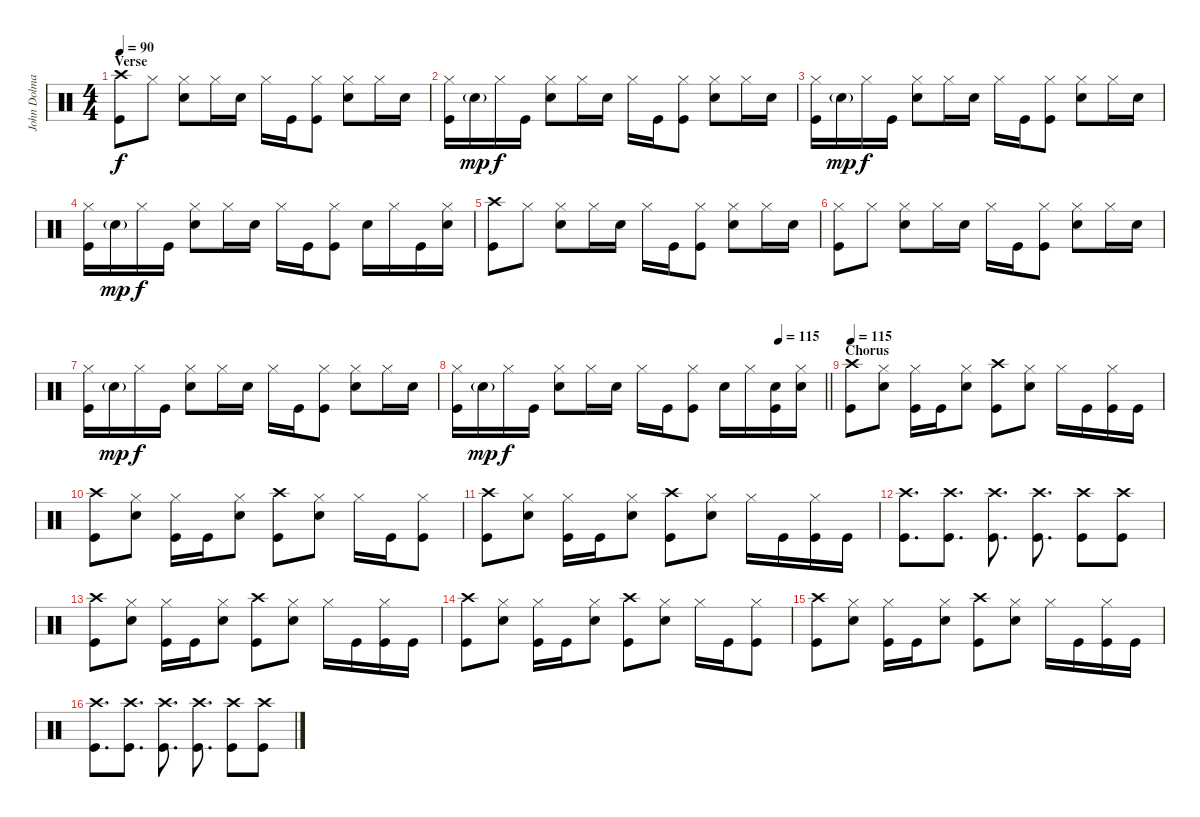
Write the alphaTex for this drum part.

\track ("John Dolmayan" "John Dolma") {instrument percussion}
\staff {score}
\articulation defaults
\ts (4 4)
\section ("" "Verse")
\tempo 90
\clef neutral
\ks c
("Crash high (hit)" "Kick (hit)").8{dy f} "Hi-Hat (closed)".8 ("Hi-Hat (closed)" "Snare (hit) 2").8 "Hi-Hat (closed)".16 "Snare (hit) 2".16 "Hi-Hat (closed)".16 "Kick (hit)".16 ("Hi-Hat (closed)" "Kick (hit)").8 ("Hi-Hat (closed)" "Snare (hit) 2").8 "Hi-Hat (closed)".16 "Snare (hit) 2".16 |
("Hi-Hat (closed)" "Kick (hit)").16 "Snare (hit) 2"{g}.16{dy mp} "Hi-Hat (closed)".16{dy f} "Kick (hit)".16 ("Hi-Hat (closed)" "Snare (hit) 2").8 "Hi-Hat (closed)".16 "Snare (hit) 2".16 "Hi-Hat (closed)".16 "Kick (hit)".16 ("Hi-Hat (closed)" "Kick (hit)").8 ("Hi-Hat (closed)" "Snare (hit) 2").8 "Hi-Hat (closed)".16 "Snare (hit) 2".16 |
("Hi-Hat (closed)" "Kick (hit)").16 "Snare (hit) 2"{g}.16{dy mp} "Hi-Hat (closed)".16{dy f} "Kick (hit)".16 ("Hi-Hat (closed)" "Snare (hit) 2").8 "Hi-Hat (closed)".16 "Snare (hit) 2".16 "Hi-Hat (closed)".16 "Kick (hit)".16 ("Hi-Hat (closed)" "Kick (hit)").8 ("Hi-Hat (closed)" "Snare (hit) 2").8 "Hi-Hat (closed)".16 "Snare (hit) 2".16 |
("Hi-Hat (closed)" "Kick (hit)").16 "Snare (hit) 2"{g}.16{dy mp} "Hi-Hat (closed)".16{dy f} "Kick (hit)".16 ("Hi-Hat (closed)" "Snare (hit) 2").8 "Hi-Hat (closed)".16 "Snare (hit) 2".16 "Hi-Hat (closed)".16 "Kick (hit)".16 ("Hi-Hat (closed)" "Kick (hit)").8 "Snare (hit) 2".16 "Hi-Hat (closed)".16 "Kick (hit)".16 ("Hi-Hat (closed)" "Snare (hit) 2").16 |
("Crash high (hit)" "Kick (hit)").8 "Hi-Hat (closed)".8 ("Hi-Hat (closed)" "Snare (hit) 2").8 "Hi-Hat (closed)".16 "Snare (hit) 2".16 "Hi-Hat (closed)".16 "Kick (hit)".16 ("Hi-Hat (closed)" "Kick (hit)").8 ("Hi-Hat (closed)" "Snare (hit) 2").8 "Hi-Hat (closed)".16 "Snare (hit) 2".16 |
("Hi-Hat (closed)" "Kick (hit)").8 "Hi-Hat (closed)".8 ("Hi-Hat (closed)" "Snare (hit) 2").8 "Hi-Hat (closed)".16 "Snare (hit) 2".16 "Hi-Hat (closed)".16 "Kick (hit)".16 ("Hi-Hat (closed)" "Kick (hit)").8 ("Hi-Hat (closed)" "Snare (hit) 2").8 "Hi-Hat (closed)".16 "Snare (hit) 2".16 |
("Hi-Hat (closed)" "Kick (hit)").16 "Snare (hit) 2"{g}.16{dy mp} "Hi-Hat (closed)".16{dy f} "Kick (hit)".16 ("Hi-Hat (closed)" "Snare (hit) 2").8 "Hi-Hat (closed)".16 "Snare (hit) 2".16 "Hi-Hat (closed)".16 "Kick (hit)".16 ("Hi-Hat (closed)" "Kick (hit)").8 ("Hi-Hat (closed)" "Snare (hit) 2").8 "Hi-Hat (closed)".16 "Snare (hit) 2".16 |
\tempo (115 0.875)
\barLineRight lightlight
("Hi-Hat (closed)" "Kick (hit)").16 "Snare (hit) 2"{g}.16{dy mp} "Hi-Hat (closed)".16{dy f} "Kick (hit)".16 ("Hi-Hat (closed)" "Snare (hit) 2").8 "Hi-Hat (closed)".16 "Snare (hit) 2".16 "Hi-Hat (closed)".16 "Kick (hit)".16 ("Hi-Hat (closed)" "Kick (hit)").8 "Snare (hit) 2".16 "Hi-Hat (closed)".16 ("Snare (hit) 2" "Kick (hit)").16 ("Hi-Hat (closed)" "Snare (hit) 2").16 |
\section ("" "Chorus")
\tempo 115
("Crash high (hit)" "Kick (hit)").8 ("Hi-Hat (closed)" "Snare (hit) 2").8 ("Hi-Hat (closed)" "Kick (hit)").16 "Kick (hit)".16 ("Hi-Hat (closed)" "Snare (hit) 2").8 ("Crash high (hit)" "Kick (hit)").8 ("Hi-Hat (closed)" "Snare (hit) 2").8 "Hi-Hat (closed)".16 "Kick (hit)".16 ("Hi-Hat (closed)" "Kick (hit)").16 "Kick (hit)".16 |
("Crash high (hit)" "Kick (hit)").8 ("Hi-Hat (closed)" "Snare (hit) 2").8 ("Hi-Hat (closed)" "Kick (hit)").16 "Kick (hit)".16 ("Hi-Hat (closed)" "Snare (hit) 2").8 ("Crash high (hit)" "Kick (hit)").8 ("Hi-Hat (closed)" "Snare (hit) 2").8 "Hi-Hat (closed)".16 "Kick (hit)".16 ("Hi-Hat (closed)" "Kick (hit)").8 |
("Crash high (hit)" "Kick (hit)").8 ("Hi-Hat (closed)" "Snare (hit) 2").8 ("Hi-Hat (closed)" "Kick (hit)").16 "Kick (hit)".16 ("Hi-Hat (closed)" "Snare (hit) 2").8 ("Crash high (hit)" "Kick (hit)").8 ("Hi-Hat (closed)" "Snare (hit) 2").8 "Hi-Hat (closed)".16 "Kick (hit)".16 ("Hi-Hat (closed)" "Kick (hit)").16 "Kick (hit)".16 |
("Crash high (hit)" "Kick (hit)").8{d} ("Crash high (hit)" "Kick (hit)").8{d} ("Crash high (hit)" "Kick (hit)").8{d} ("Crash high (hit)" "Kick (hit)").8{d} ("Crash high (hit)" "Kick (hit)").8 ("Crash high (hit)" "Kick (hit)").8 |
("Crash high (hit)" "Kick (hit)").8 ("Hi-Hat (closed)" "Snare (hit) 2").8 ("Hi-Hat (closed)" "Kick (hit)").16 "Kick (hit)".16 ("Hi-Hat (closed)" "Snare (hit) 2").8 ("Crash high (hit)" "Kick (hit)").8 ("Hi-Hat (closed)" "Snare (hit) 2").8 "Hi-Hat (closed)".16 "Kick (hit)".16 ("Hi-Hat (closed)" "Kick (hit)").16 "Kick (hit)".16 |
("Crash high (hit)" "Kick (hit)").8 ("Hi-Hat (closed)" "Snare (hit) 2").8 ("Hi-Hat (closed)" "Kick (hit)").16 "Kick (hit)".16 ("Hi-Hat (closed)" "Snare (hit) 2").8 ("Crash high (hit)" "Kick (hit)").8 ("Hi-Hat (closed)" "Snare (hit) 2").8 "Hi-Hat (closed)".16 "Kick (hit)".16 ("Hi-Hat (closed)" "Kick (hit)").8 |
("Crash high (hit)" "Kick (hit)").8 ("Hi-Hat (closed)" "Snare (hit) 2").8 ("Hi-Hat (closed)" "Kick (hit)").16 "Kick (hit)".16 ("Hi-Hat (closed)" "Snare (hit) 2").8 ("Crash high (hit)" "Kick (hit)").8 ("Hi-Hat (closed)" "Snare (hit) 2").8 "Hi-Hat (closed)".16 "Kick (hit)".16 ("Hi-Hat (closed)" "Kick (hit)").16 "Kick (hit)".16 |
("Crash high (hit)" "Kick (hit)").8{d} ("Crash high (hit)" "Kick (hit)").8{d} ("Crash high (hit)" "Kick (hit)").8{d} ("Crash high (hit)" "Kick (hit)").8{d} ("Crash high (hit)" "Kick (hit)").8 ("Crash high (hit)" "Kick (hit)").8
